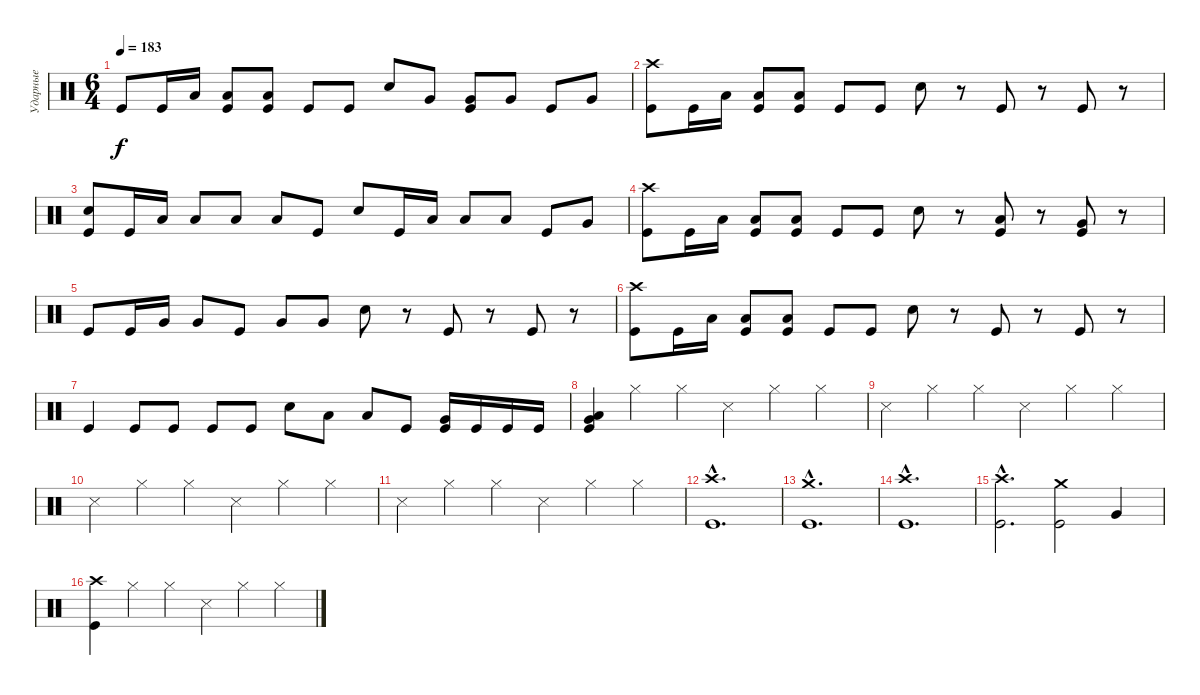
\track ("Ударные" "Ударные") {instrument percussion}
\staff {score}
\articulation defaults
\ts (6 4)
\tempo 183
\clef neutral
\ks c "Kick (hit)".8{dy f} "Kick (hit)".16 "Low Tom (hit)".16
("Low Tom (hit)" "Kick (hit)").8 ("Low Tom (hit)" "Kick (hit)").8 "Kick (hit)".8 "Kick (hit)".8 "Electric Snare (hit)".8 "Very Low Tom (hit)".8 ("Very Low Tom (hit)" "Kick (hit)").8 "Very Low Tom (hit)".8 "Kick (hit)".8 "Very Low Tom (hit)".8 |
("Crash high (hit)" "Kick (hit)").8 "Kick (hit)".16 "Low Tom (hit)".16 ("Low Tom (hit)" "Kick (hit)").8 ("Low Tom (hit)" "Kick (hit)").8 "Kick (hit)".8 "Kick (hit)".8 "Electric Snare (hit)".8 r.8 "Kick (hit)".8 r.8 "Kick (hit)".8 r.8 |
("Electric Snare (hit)" "Kick (hit)").8 "Kick (hit)".16 "Low Tom (hit)".16 "Low Tom (hit)".8 "Low Tom (hit)".8 "Low Tom (hit)".8 "Kick (hit)".8 "Electric Snare (hit)".8 "Kick (hit)".16 "Low Tom (hit)".16 "Low Tom (hit)".8 "Low Tom (hit)".8 "Kick (hit)".8 "Very Low Tom (hit)".8 |
("Crash high (hit)" "Kick (hit)").8 "Kick (hit)".16 "Low Tom (hit)".16 ("Low Tom (hit)" "Kick (hit)").8 ("Low Tom (hit)" "Kick (hit)").8 "Kick (hit)".8 "Kick (hit)".8 "Electric Snare (hit)".8 r.8 ("Low Tom (hit)" "Kick (hit)").8 r.8 ("Very Low Tom (hit)" "Kick (hit)").8 r.8 |
"Kick (hit)".8 "Kick (hit)".16 "Very Low Tom (hit)".16 "Very Low Tom (hit)".8 "Kick (hit)".8 "Very Low Tom (hit)".8 "Very Low Tom (hit)".8 "Electric Snare (hit)".8 r.8 "Kick (hit)".8 r.8 "Kick (hit)".8 r.8 |
("Crash high (hit)" "Kick (hit)").8 "Kick (hit)".16 "Low Tom (hit)".16 ("Low Tom (hit)" "Kick (hit)").8 ("Low Tom (hit)" "Kick (hit)").8 "Kick (hit)".8 "Kick (hit)".8 "Electric Snare (hit)".8 r.8 "Kick (hit)".8 r.8 "Kick (hit)".8 r.8 |
"Kick (hit)".4 "Kick (hit)".8 "Kick (hit)".8 "Kick (hit)".8 "Kick (hit)".8 "Electric Snare (hit)".8 "Low Tom (hit)".8 "Low Tom (hit)".8 "Kick (hit)".8 ("Very Low Tom (hit)" "Kick (hit)").16 "Kick (hit)".16 "Kick (hit)".16 "Kick (hit)".16 |
("Very Low Tom (hit)" "Low Tom (hit)" "Kick (hit)").4 "Hi-Hat (closed)".4 "Hi-Hat (closed)".4 "Snare (side stick) 3".4 "Hi-Hat (closed)".4 "Hi-Hat (closed)".4 |
"Snare (side stick) 3".4 "Hi-Hat (closed)".4 "Hi-Hat (closed)".4 "Snare (side stick) 3".4 "Hi-Hat (closed)".4 "Hi-Hat (closed)".4 |
"Snare (side stick) 3".4 "Hi-Hat (closed)".4 "Hi-Hat (closed)".4 "Snare (side stick) 3".4 "Hi-Hat (closed)".4 "Hi-Hat (closed)".4 |
"Snare (side stick) 3".4 "Hi-Hat (closed)".4 "Hi-Hat (closed)".4 "Snare (side stick) 3".4 "Hi-Hat (closed)".4 "Hi-Hat (closed)".4 |
("Crash high (hit)"{hac} "Kick (hit)"{hac}).1{d} |
("Crash medium (hit)"{hac} "Kick (hit)"{hac}).1{d} |
("Crash high (hit)"{hac} "Kick (hit)"{hac}).1{d} |
("Crash high (hit)"{hac} "Kick (hit)"{hac}).2{d} ("Crash medium (hit)" "Kick (hit)").2 "Very Low Tom (hit)".4 |
("Crash high (hit)" "Kick (hit)").4 "Hi-Hat (closed)".4 "Hi-Hat (closed)".4 "Snare (side stick) 3".4 "Hi-Hat (closed)".4 "Hi-Hat (closed)".4
